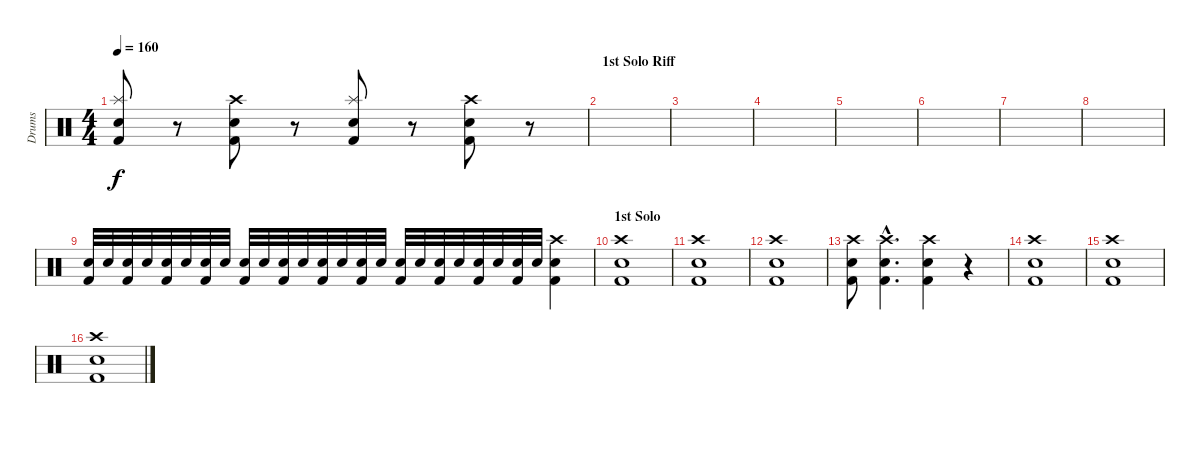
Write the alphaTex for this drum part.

\track ("Drums" "Drums") {instrument percussion}
\staff {score}
\articulation defaults
\ts (4 4)
\tempo 160
\clef neutral
\ks c
("Kick (hit) 2" "Splash (hit)" "Snare (hit) 2").8{dy f} r.8 ("Kick (hit) 2" "Snare (hit) 2" "Crash high (hit)").8 r.8 ("Kick (hit) 2" "Snare (hit) 2" "Splash (hit)").8 r.8 ("Kick (hit) 2" "Crash high (hit)" "Snare (hit) 2").8 r.8 |
\section ("" "1st Solo Riff")
|
|
|
|
|
|
|
("Kick (hit) 2" "Snare (hit) 2").32 "Snare (hit) 2".32 ("Kick (hit) 2" "Snare (hit) 2").32 "Snare (hit) 2".32 ("Kick (hit) 2" "Snare (hit) 2").32 "Snare (hit) 2".32 ("Kick (hit) 2" "Snare (hit) 2").32 "Snare (hit) 2".32 ("Kick (hit) 2" "Snare (hit) 2").32 "Snare (hit) 2".32 ("Kick (hit) 2" "Snare (hit) 2").32 "Snare (hit) 2".32 ("Kick (hit) 2" "Snare (hit) 2").32 "Snare (hit) 2".32 ("Kick (hit) 2" "Snare (hit) 2").32 "Snare (hit) 2".32 ("Kick (hit) 2" "Snare (hit) 2").32 "Snare (hit) 2".32 ("Kick (hit) 2" "Snare (hit) 2").32 "Snare (hit) 2".32 ("Kick (hit) 2" "Snare (hit) 2").32 "Snare (hit) 2".32 ("Snare (hit) 2" "Kick (hit) 2").32 "Snare (hit) 2".32 ("Snare (hit) 2" "Crash high (hit)" "Kick (hit) 2").4 |
\section ("" "1st Solo")
("Crash high (hit)" "Kick (hit) 2" "Snare (hit) 2").1 |
("Kick (hit) 2" "Snare (hit) 2" "Crash high (hit)").1 |
("Crash high (hit)" "Snare (hit) 2" "Kick (hit) 2").1 |
("Crash high (hit)" "Snare (hit) 2" "Kick (hit) 2").8 ("Crash high (hit)"{hac} "Snare (hit) 2"{hac} "Kick (hit) 2"{hac}).4{d} ("Snare (hit) 2" "Crash high (hit)" "Kick (hit) 2").4 r.4 |
("Crash high (hit)" "Kick (hit) 2" "Snare (hit) 2").1 |
("Kick (hit) 2" "Snare (hit) 2" "Crash high (hit)").1 |
("Crash high (hit)" "Snare (hit) 2" "Kick (hit) 2").1
